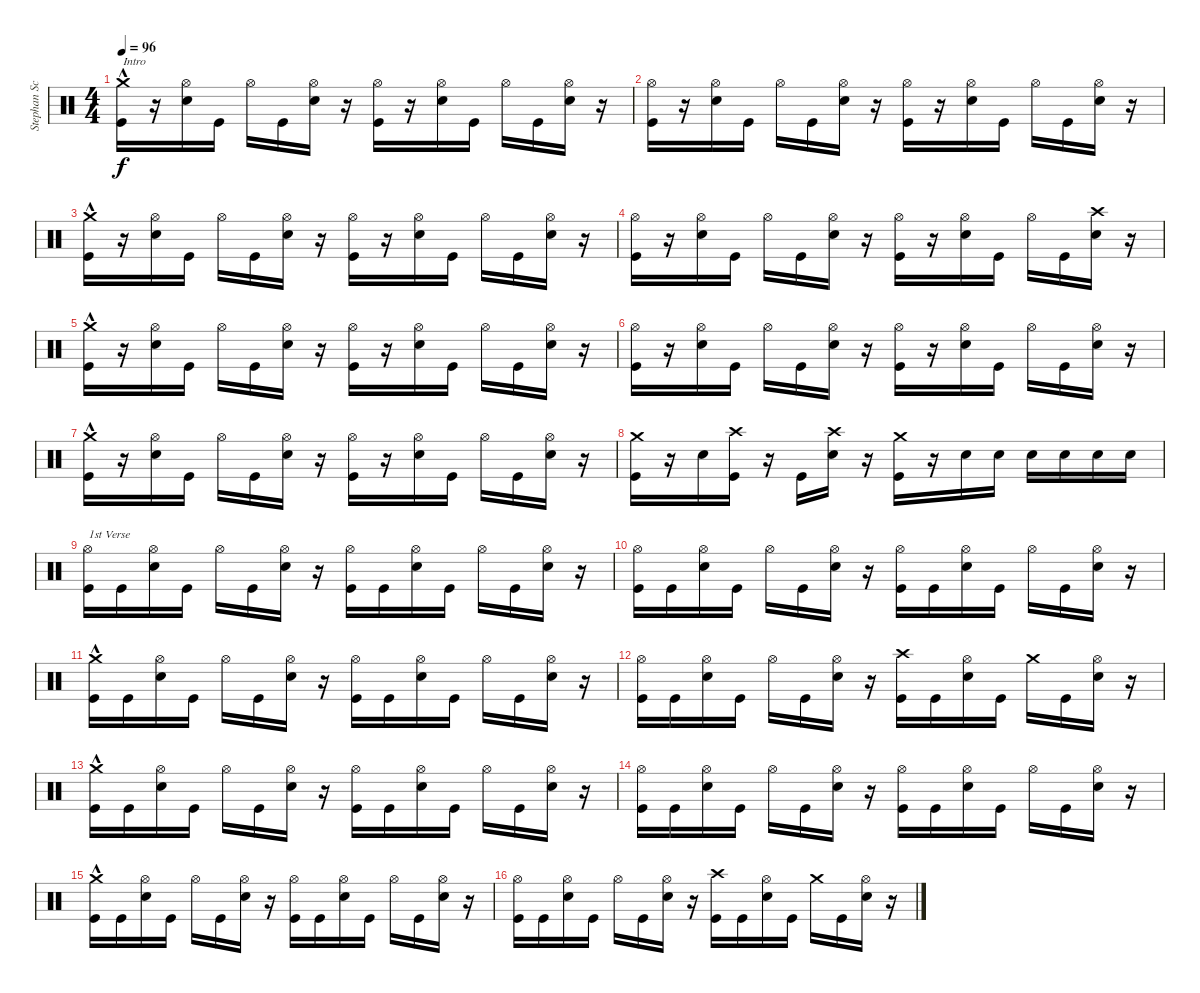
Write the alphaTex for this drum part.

\track ("Stephan Schwarzmann" "Stephan Sc") {instrument percussion}
\staff {score}
\articulation defaults
\ts (4 4)
\tempo 96
\clef neutral
\ks c
("Kick (hit)" "Crash medium (hit)"{hac}).16{txt "Intro" dy f} r.16 ("Snare (hit) 2" "Hi-Hat (open)").16 "Kick (hit)".16 "Hi-Hat (open)".16 "Kick (hit)".16 ("Snare (hit) 2" "Hi-Hat (open)").16 r.16 ("Kick (hit)" "Hi-Hat (open)").16 r.16 ("Snare (hit) 2" "Hi-Hat (open)").16 "Kick (hit)".16 "Hi-Hat (open)".16 "Kick (hit)".16 ("Snare (hit) 2" "Hi-Hat (open)").16 r.16 |
("Kick (hit)" "Hi-Hat (open)").16 r.16 ("Snare (hit) 2" "Hi-Hat (open)").16 "Kick (hit)".16 "Hi-Hat (open)".16 "Kick (hit)".16 ("Snare (hit) 2" "Hi-Hat (open)").16 r.16 ("Kick (hit)" "Hi-Hat (open)").16 r.16 ("Snare (hit) 2" "Hi-Hat (open)").16 "Kick (hit)".16 "Hi-Hat (open)".16 "Kick (hit)".16 ("Snare (hit) 2" "Hi-Hat (open)").16 r.16 |
("Kick (hit)" "Crash medium (hit)"{hac}).16 r.16 ("Snare (hit) 2" "Hi-Hat (open)").16 "Kick (hit)".16 "Hi-Hat (open)".16 "Kick (hit)".16 ("Snare (hit) 2" "Hi-Hat (open)").16 r.16 ("Kick (hit)" "Hi-Hat (open)").16 r.16 ("Snare (hit) 2" "Hi-Hat (open)").16 "Kick (hit)".16 "Hi-Hat (open)".16 "Kick (hit)".16 ("Snare (hit) 2" "Hi-Hat (open)").16 r.16 |
("Kick (hit)" "Hi-Hat (open)").16 r.16 ("Snare (hit) 2" "Hi-Hat (open)").16 "Kick (hit)".16 "Hi-Hat (open)".16 "Kick (hit)".16 ("Snare (hit) 2" "Hi-Hat (open)").16 r.16 ("Kick (hit)" "Hi-Hat (open)").16 r.16 ("Snare (hit) 2" "Hi-Hat (open)").16 "Kick (hit)".16 "Hi-Hat (open)".16 "Kick (hit)".16 ("Snare (hit) 2" "Crash high (hit)").16 r.16 |
("Kick (hit)" "Crash medium (hit)"{hac}).16 r.16 ("Snare (hit) 2" "Hi-Hat (open)").16 "Kick (hit)".16 "Hi-Hat (open)".16 "Kick (hit)".16 ("Snare (hit) 2" "Hi-Hat (open)").16 r.16 ("Kick (hit)" "Hi-Hat (open)").16 r.16 ("Snare (hit) 2" "Hi-Hat (open)").16 "Kick (hit)".16 "Hi-Hat (open)".16 "Kick (hit)".16 ("Snare (hit) 2" "Hi-Hat (open)").16 r.16 |
("Kick (hit)" "Hi-Hat (open)").16 r.16 ("Snare (hit) 2" "Hi-Hat (open)").16 "Kick (hit)".16 "Hi-Hat (open)".16 "Kick (hit)".16 ("Snare (hit) 2" "Hi-Hat (open)").16 r.16 ("Kick (hit)" "Hi-Hat (open)").16 r.16 ("Snare (hit) 2" "Hi-Hat (open)").16 "Kick (hit)".16 "Hi-Hat (open)".16 "Kick (hit)".16 ("Snare (hit) 2" "Hi-Hat (open)").16 r.16 |
("Kick (hit)" "Crash medium (hit)"{hac}).16 r.16 ("Snare (hit) 2" "Hi-Hat (open)").16 "Kick (hit)".16 "Hi-Hat (open)".16 "Kick (hit)".16 ("Snare (hit) 2" "Hi-Hat (open)").16 r.16 ("Kick (hit)" "Hi-Hat (open)").16 r.16 ("Snare (hit) 2" "Hi-Hat (open)").16 "Kick (hit)".16 "Hi-Hat (open)".16 "Kick (hit)".16 ("Snare (hit) 2" "Hi-Hat (open)").16 r.16 |
("Kick (hit)" "Crash medium (hit)").16 r.16 "Snare (hit) 2".16 ("Kick (hit)" "Crash high (hit)").16 r.16 "Kick (hit)".16 ("Snare (hit) 2" "Crash high (hit)").16 r.16 ("Kick (hit)" "Crash medium (hit)").16 r.16 "Snare (hit) 2".16 "Snare (hit) 2".16 "Snare (hit) 2".16 "Snare (hit) 2".16 "Snare (hit) 2".16 "Snare (hit) 2".16 |
("Hi-Hat (open)" "Kick (hit)").16{txt "1st Verse"} "Kick (hit)".16 ("Snare (hit) 2" "Hi-Hat (open)").16 "Kick (hit)".16 "Hi-Hat (open)".16 "Kick (hit)".16 ("Hi-Hat (open)" "Snare (hit) 2").16 r.16 ("Hi-Hat (open)" "Kick (hit)").16 "Kick (hit)".16 ("Snare (hit) 2" "Hi-Hat (open)").16 "Kick (hit)".16 "Hi-Hat (open)".16 "Kick (hit)".16 ("Hi-Hat (open)" "Snare (hit) 2").16 r.16 |
("Hi-Hat (open)" "Kick (hit)").16 "Kick (hit)".16 ("Snare (hit) 2" "Hi-Hat (open)").16 "Kick (hit)".16 "Hi-Hat (open)".16 "Kick (hit)".16 ("Hi-Hat (open)" "Snare (hit) 2").16 r.16 ("Hi-Hat (open)" "Kick (hit)").16 "Kick (hit)".16 ("Snare (hit) 2" "Hi-Hat (open)").16 "Kick (hit)".16 "Hi-Hat (open)".16 "Kick (hit)".16 ("Hi-Hat (open)" "Snare (hit) 2").16 r.16 |
("Kick (hit)" "Crash medium (hit)"{hac}).16 "Kick (hit)".16 ("Snare (hit) 2" "Hi-Hat (open)").16 "Kick (hit)".16 "Hi-Hat (open)".16 "Kick (hit)".16 ("Hi-Hat (open)" "Snare (hit) 2").16 r.16 ("Hi-Hat (open)" "Kick (hit)").16 "Kick (hit)".16 ("Snare (hit) 2" "Hi-Hat (open)").16 "Kick (hit)".16 "Hi-Hat (open)".16 "Kick (hit)".16 ("Hi-Hat (open)" "Snare (hit) 2").16 r.16 |
("Hi-Hat (open)" "Kick (hit)").16 "Kick (hit)".16 ("Snare (hit) 2" "Hi-Hat (open)").16 "Kick (hit)".16 "Hi-Hat (open)".16 "Kick (hit)".16 ("Hi-Hat (open)" "Snare (hit) 2").16 r.16 ("Kick (hit)" "Crash high (hit)").16 "Kick (hit)".16 ("Snare (hit) 2" "Hi-Hat (open)").16 "Kick (hit)".16 "Crash medium (hit)".16 "Kick (hit)".16 ("Hi-Hat (open)" "Snare (hit) 2").16 r.16 |
("Kick (hit)" "Crash medium (hit)"{hac}).16 "Kick (hit)".16 ("Snare (hit) 2" "Hi-Hat (open)").16 "Kick (hit)".16 "Hi-Hat (open)".16 "Kick (hit)".16 ("Hi-Hat (open)" "Snare (hit) 2").16 r.16 ("Hi-Hat (open)" "Kick (hit)").16 "Kick (hit)".16 ("Snare (hit) 2" "Hi-Hat (open)").16 "Kick (hit)".16 "Hi-Hat (open)".16 "Kick (hit)".16 ("Hi-Hat (open)" "Snare (hit) 2").16 r.16 |
("Hi-Hat (open)" "Kick (hit)").16 "Kick (hit)".16 ("Snare (hit) 2" "Hi-Hat (open)").16 "Kick (hit)".16 "Hi-Hat (open)".16 "Kick (hit)".16 ("Hi-Hat (open)" "Snare (hit) 2").16 r.16 ("Hi-Hat (open)" "Kick (hit)").16 "Kick (hit)".16 ("Snare (hit) 2" "Hi-Hat (open)").16 "Kick (hit)".16 "Hi-Hat (open)".16 "Kick (hit)".16 ("Hi-Hat (open)" "Snare (hit) 2").16 r.16 |
("Kick (hit)" "Crash medium (hit)"{hac}).16 "Kick (hit)".16 ("Snare (hit) 2" "Hi-Hat (open)").16 "Kick (hit)".16 "Hi-Hat (open)".16 "Kick (hit)".16 ("Hi-Hat (open)" "Snare (hit) 2").16 r.16 ("Hi-Hat (open)" "Kick (hit)").16 "Kick (hit)".16 ("Snare (hit) 2" "Hi-Hat (open)").16 "Kick (hit)".16 "Hi-Hat (open)".16 "Kick (hit)".16 ("Hi-Hat (open)" "Snare (hit) 2").16 r.16 |
("Hi-Hat (open)" "Kick (hit)").16 "Kick (hit)".16 ("Snare (hit) 2" "Hi-Hat (open)").16 "Kick (hit)".16 "Hi-Hat (open)".16 "Kick (hit)".16 ("Hi-Hat (open)" "Snare (hit) 2").16 r.16 ("Kick (hit)" "Crash high (hit)").16 "Kick (hit)".16 ("Snare (hit) 2" "Hi-Hat (open)").16 "Kick (hit)".16 "Crash medium (hit)".16 "Kick (hit)".16 ("Hi-Hat (open)" "Snare (hit) 2").16 r.16
